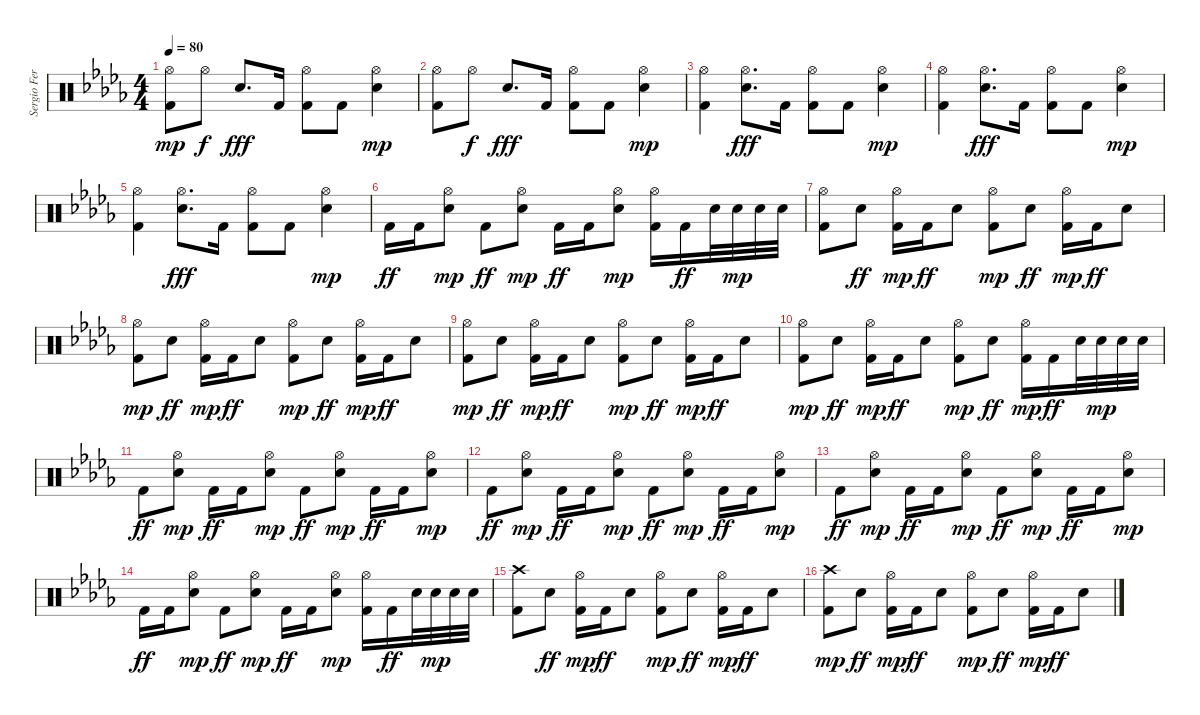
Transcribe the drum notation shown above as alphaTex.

\track ("Sergio Fernandez \"Taz\"" "Sergio Fer") {instrument percussion}
\staff {score}
\articulation defaults
\ts (4 4)
\tempo 80
\clef neutral
\ks bbminor
("Kick (hit) 2" "Hi-Hat (open)").8{dy mp} "Hi-Hat (open)".8{dy f} "Snare (hit) 2".8{d dy fff} "Kick (hit) 2".16 ("Hi-Hat (open)" "Kick (hit) 2").8 "Kick (hit) 2".8 ("Snare (hit) 2" "Hi-Hat (open)").4{dy mp} |
("Kick (hit) 2" "Hi-Hat (open)").8 "Hi-Hat (open)".8{dy f} "Snare (hit) 2".8{d dy fff} "Kick (hit) 2".16 ("Hi-Hat (open)" "Kick (hit) 2").8 "Kick (hit) 2".8 ("Snare (hit) 2" "Hi-Hat (open)").4{dy mp} |
("Kick (hit) 2" "Hi-Hat (open)").4 ("Hi-Hat (open)" "Snare (hit) 2").8{d dy fff} "Kick (hit) 2".16 ("Hi-Hat (open)" "Kick (hit) 2").8 "Kick (hit) 2".8 ("Snare (hit) 2" "Hi-Hat (open)").4{dy mp} |
("Kick (hit) 2" "Hi-Hat (open)").4 ("Hi-Hat (open)" "Snare (hit) 2").8{d dy fff} "Kick (hit) 2".16 ("Hi-Hat (open)" "Kick (hit) 2").8 "Kick (hit) 2".8 ("Snare (hit) 2" "Hi-Hat (open)").4{dy mp} |
("Kick (hit) 2" "Hi-Hat (open)").4 ("Hi-Hat (open)" "Snare (hit) 2").8{d dy fff} "Kick (hit) 2".16 ("Hi-Hat (open)" "Kick (hit) 2").8 "Kick (hit) 2".8 ("Snare (hit) 2" "Hi-Hat (open)").4{dy mp} |
"Kick (hit) 2".16{dy ff} "Kick (hit) 2".16 ("Electric Snare (hit)" "Hi-Hat (open)").8{dy mp} "Kick (hit) 2".8{dy ff} ("Electric Snare (hit)" "Hi-Hat (open)").8{dy mp} "Kick (hit) 2".16{dy ff} "Kick (hit) 2".16 ("Electric Snare (hit)" "Hi-Hat (open)").8{dy mp} ("Kick (hit) 2" "Hi-Hat (open)").16 "Kick (hit) 2".16{dy ff} "Electric Snare (hit)".32 "Electric Snare (hit)".32{dy mp} "Electric Snare (hit)".32 "Electric Snare (hit)".32 |
("Kick (hit) 2" "Hi-Hat (open)").8 "Electric Snare (hit)".8{dy ff} ("Kick (hit) 2" "Hi-Hat (open)").16{dy mp} "Kick (hit) 2".16{dy ff} "Electric Snare (hit)".8 ("Kick (hit) 2" "Hi-Hat (open)").8{dy mp} "Electric Snare (hit)".8{dy ff} ("Kick (hit) 2" "Hi-Hat (open)").16{dy mp} "Kick (hit) 2".16{dy ff} "Electric Snare (hit)".8 |
("Kick (hit) 2" "Hi-Hat (open)").8{dy mp} "Electric Snare (hit)".8{dy ff} ("Kick (hit) 2" "Hi-Hat (open)").16{dy mp} "Kick (hit) 2".16{dy ff} "Electric Snare (hit)".8 ("Kick (hit) 2" "Hi-Hat (open)").8{dy mp} "Electric Snare (hit)".8{dy ff} ("Kick (hit) 2" "Hi-Hat (open)").16{dy mp} "Kick (hit) 2".16{dy ff} "Electric Snare (hit)".8 |
("Kick (hit) 2" "Hi-Hat (open)").8{dy mp} "Electric Snare (hit)".8{dy ff} ("Kick (hit) 2" "Hi-Hat (open)").16{dy mp} "Kick (hit) 2".16{dy ff} "Electric Snare (hit)".8 ("Kick (hit) 2" "Hi-Hat (open)").8{dy mp} "Electric Snare (hit)".8{dy ff} ("Kick (hit) 2" "Hi-Hat (open)").16{dy mp} "Kick (hit) 2".16{dy ff} "Electric Snare (hit)".8 |
("Kick (hit) 2" "Hi-Hat (open)").8{dy mp} "Electric Snare (hit)".8{dy ff} ("Kick (hit) 2" "Hi-Hat (open)").16{dy mp} "Kick (hit) 2".16{dy ff} "Electric Snare (hit)".8 ("Kick (hit) 2" "Hi-Hat (open)").8{dy mp} "Electric Snare (hit)".8{dy ff} ("Kick (hit) 2" "Hi-Hat (open)").16{dy mp} "Kick (hit) 2".16{dy ff} "Electric Snare (hit)".32 "Electric Snare (hit)".32{dy mp} "Electric Snare (hit)".32 "Electric Snare (hit)".32 |
"Kick (hit) 2".8{dy ff} ("Electric Snare (hit)" "Hi-Hat (open)").8{dy mp} "Kick (hit) 2".16{dy ff} "Kick (hit) 2".16 ("Electric Snare (hit)" "Hi-Hat (open)").8{dy mp} "Kick (hit) 2".8{dy ff} ("Electric Snare (hit)" "Hi-Hat (open)").8{dy mp} "Kick (hit) 2".16{dy ff} "Kick (hit) 2".16 ("Electric Snare (hit)" "Hi-Hat (open)").8{dy mp} |
"Kick (hit) 2".8{dy ff} ("Electric Snare (hit)" "Hi-Hat (open)").8{dy mp} "Kick (hit) 2".16{dy ff} "Kick (hit) 2".16 ("Electric Snare (hit)" "Hi-Hat (open)").8{dy mp} "Kick (hit) 2".8{dy ff} ("Electric Snare (hit)" "Hi-Hat (open)").8{dy mp} "Kick (hit) 2".16{dy ff} "Kick (hit) 2".16 ("Electric Snare (hit)" "Hi-Hat (open)").8{dy mp} |
"Kick (hit) 2".8{dy ff} ("Electric Snare (hit)" "Hi-Hat (open)").8{dy mp} "Kick (hit) 2".16{dy ff} "Kick (hit) 2".16 ("Electric Snare (hit)" "Hi-Hat (open)").8{dy mp} "Kick (hit) 2".8{dy ff} ("Electric Snare (hit)" "Hi-Hat (open)").8{dy mp} "Kick (hit) 2".16{dy ff} "Kick (hit) 2".16 ("Electric Snare (hit)" "Hi-Hat (open)").8{dy mp} |
"Kick (hit) 2".16{dy ff} "Kick (hit) 2".16 ("Electric Snare (hit)" "Hi-Hat (open)").8{dy mp} "Kick (hit) 2".8{dy ff} ("Electric Snare (hit)" "Hi-Hat (open)").8{dy mp} "Kick (hit) 2".16{dy ff} "Kick (hit) 2".16 ("Electric Snare (hit)" "Hi-Hat (open)").8{dy mp} ("Kick (hit) 2" "Hi-Hat (open)").16 "Kick (hit) 2".16{dy ff} "Electric Snare (hit)".32 "Electric Snare (hit)".32{dy mp} "Electric Snare (hit)".32 "Electric Snare (hit)".32 |
("Kick (hit) 2" "Crash high (hit)").8 "Electric Snare (hit)".8{dy ff} ("Kick (hit) 2" "Hi-Hat (open)").16{dy mp} "Kick (hit) 2".16{dy ff} "Electric Snare (hit)".8 ("Kick (hit) 2" "Hi-Hat (open)").8{dy mp} "Electric Snare (hit)".8{dy ff} ("Kick (hit) 2" "Hi-Hat (open)").16{dy mp} "Kick (hit) 2".16{dy ff} "Electric Snare (hit)".8 |
("Kick (hit) 2" "Crash high (hit)").8{dy mp} "Electric Snare (hit)".8{dy ff} ("Kick (hit) 2" "Hi-Hat (open)").16{dy mp} "Kick (hit) 2".16{dy ff} "Electric Snare (hit)".8 ("Kick (hit) 2" "Hi-Hat (open)").8{dy mp} "Electric Snare (hit)".8{dy ff} ("Kick (hit) 2" "Hi-Hat (open)").16{dy mp} "Kick (hit) 2".16{dy ff} "Electric Snare (hit)".8
